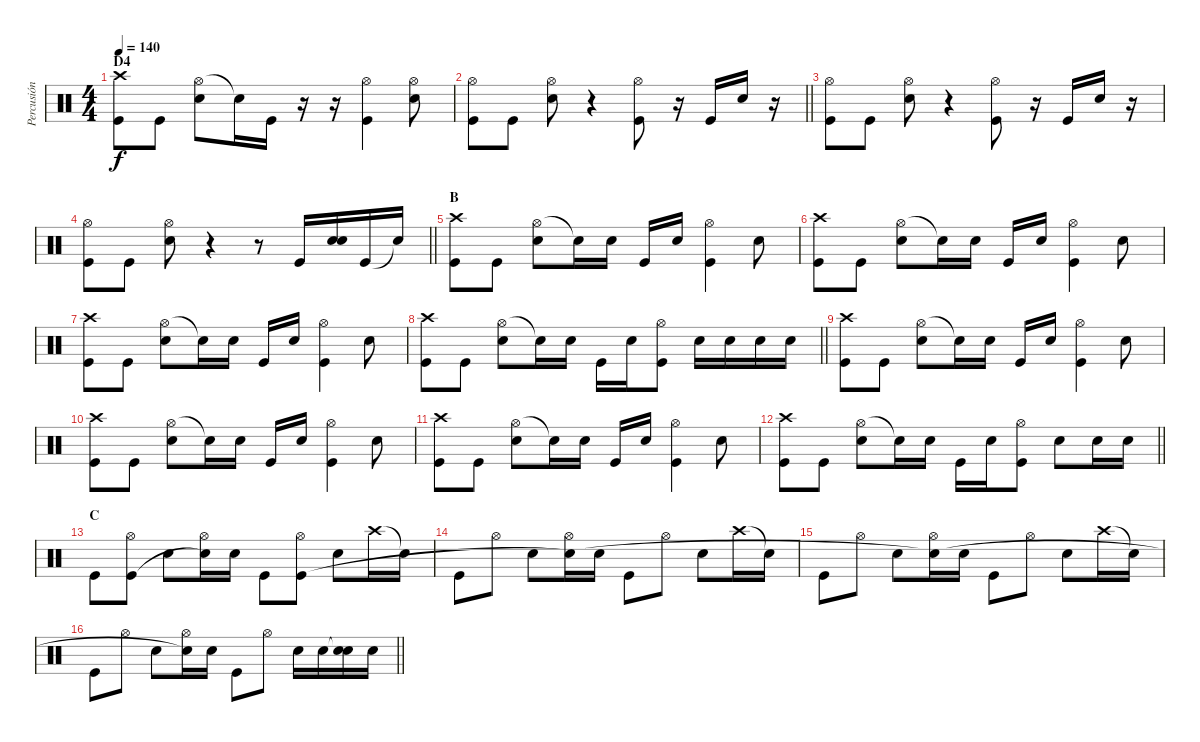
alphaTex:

\track ("Percusión" "Percusión") {instrument percussion}
\staff {score}
\articulation defaults
\ts (4 4)
\section ("" "D4")
\tempo 140
\clef neutral
\ks c
("Crash high (hit)" "Kick (hit)").8{dy f} "Kick (hit)".8 ("Hi-Hat (open)" "Electric Snare (hit)").8 "Electric Snare (hit)"{t}.16 "Kick (hit)".16 r.16 r.16 ("Hi-Hat (open)" "Kick (hit)").4 ("Hi-Hat (open)" "Electric Snare (hit)").8 |
\barLineRight lightlight
("Hi-Hat (open)" "Kick (hit)").8 "Kick (hit)".8 ("Hi-Hat (open)" "Electric Snare (hit)").8 r.4 ("Hi-Hat (open)" "Kick (hit)").8 r.16 "Kick (hit)".16 "Electric Snare (hit)".16 r.16 |
("Hi-Hat (open)" "Kick (hit)").8 "Kick (hit)".8 ("Hi-Hat (open)" "Electric Snare (hit)").8 r.4 ("Hi-Hat (open)" "Kick (hit)").8 r.16 "Kick (hit)".16 "Electric Snare (hit)".16 r.16 |
\barLineRight lightlight
("Hi-Hat (open)" "Kick (hit)").8 "Kick (hit)".8 ("Hi-Hat (open)" "Electric Snare (hit)").8 r.4 r.8 "Kick (hit)".16 ("Electric Snare (hit)" "Electric Snare (hit)").16 "Kick (hit)".16 "Snare (hit)"{t}.16 |
\section ("" "B")
("Crash high (hit)" "Kick (hit)").8 "Kick (hit)".8 ("Hi-Hat (open)" "Electric Snare (hit)").8 "Electric Snare (hit)"{t}.16 "Electric Snare (hit)".16 "Kick (hit)".16 "Electric Snare (hit)".16 ("Hi-Hat (open)" "Kick (hit)").4 "Electric Snare (hit)".8 |
("Crash high (hit)" "Kick (hit)").8 "Kick (hit)".8 ("Hi-Hat (open)" "Electric Snare (hit)").8 "Electric Snare (hit)"{t}.16 "Electric Snare (hit)".16 "Kick (hit)".16 "Electric Snare (hit)".16 ("Hi-Hat (open)" "Kick (hit)").4 "Electric Snare (hit)".8 |
("Crash high (hit)" "Kick (hit)").8 "Kick (hit)".8 ("Hi-Hat (open)" "Electric Snare (hit)").8 "Electric Snare (hit)"{t}.16 "Electric Snare (hit)".16 "Kick (hit)".16 "Electric Snare (hit)".16 ("Hi-Hat (open)" "Kick (hit)").4 "Electric Snare (hit)".8 |
\barLineRight lightlight
("Crash high (hit)" "Kick (hit)").8 "Kick (hit)".8 ("Hi-Hat (open)" "Electric Snare (hit)").8 "Electric Snare (hit)"{t}.16 "Electric Snare (hit)".16 "Kick (hit)".16 "Electric Snare (hit)".16 ("Hi-Hat (open)" "Kick (hit)").8 "Electric Snare (hit)".16 "Electric Snare (hit)".16 "Electric Snare (hit)".16 "Electric Snare (hit)".16 |
("Crash high (hit)" "Kick (hit)").8 "Kick (hit)".8 ("Hi-Hat (open)" "Electric Snare (hit)").8 "Electric Snare (hit)"{t}.16 "Electric Snare (hit)".16 "Kick (hit)".16 "Electric Snare (hit)".16 ("Hi-Hat (open)" "Kick (hit)").4 "Electric Snare (hit)".8 |
("Crash high (hit)" "Kick (hit)").8 "Kick (hit)".8 ("Hi-Hat (open)" "Electric Snare (hit)").8 "Electric Snare (hit)"{t}.16 "Electric Snare (hit)".16 "Kick (hit)".16 "Electric Snare (hit)".16 ("Hi-Hat (open)" "Kick (hit)").4 "Electric Snare (hit)".8 |
("Crash high (hit)" "Kick (hit)").8 "Kick (hit)".8 ("Hi-Hat (open)" "Electric Snare (hit)").8 "Electric Snare (hit)"{t}.16 "Electric Snare (hit)".16 "Kick (hit)".16 "Electric Snare (hit)".16 ("Hi-Hat (open)" "Kick (hit)").4 "Electric Snare (hit)".8 |
\barLineRight lightlight
("Crash high (hit)" "Kick (hit)").8 "Kick (hit)".8 ("Hi-Hat (open)" "Electric Snare (hit)").8 "Electric Snare (hit)"{t}.16 "Electric Snare (hit)".16 "Kick (hit)".16 "Electric Snare (hit)".16 ("Hi-Hat (open)" "Kick (hit)").8 "Electric Snare (hit)".8 "Electric Snare (hit)".16 "Electric Snare (hit)".16 |
\section ("" "C")
"Kick (hit)".8 ("Hi-Hat (open)" "Kick (hit)").8 "Electric Snare (hit)".8 ("Hi-Hat (open)" "Electric Snare (hit)"{t}).16 "Electric Snare (hit)".16 "Kick (hit)".8 ("Hi-Hat (open)" "Kick (hit)").8 "Electric Snare (hit)".8 "Crash high (hit)".16 "Snare (hit)"{t}.16 |
"Kick (hit)".8 "Hi-Hat (open)".8 "Electric Snare (hit)".8 ("Hi-Hat (open)" "Electric Snare (hit)"{t}).16 "Electric Snare (hit)".16 "Kick (hit)".8 "Hi-Hat (open)".8 "Electric Snare (hit)".8 "Crash high (hit)".16 "Snare (hit)"{t}.16 |
"Kick (hit)".8 "Hi-Hat (open)".8 "Electric Snare (hit)".8 ("Hi-Hat (open)" "Electric Snare (hit)"{t}).16 "Electric Snare (hit)".16 "Kick (hit)".8 "Hi-Hat (open)".8 "Electric Snare (hit)".8 "Crash high (hit)".16 "Snare (hit)"{t}.16 |
\barLineRight lightlight "Kick (hit)".8 "Hi-Hat (open)".8 "Electric Snare (hit)".8
("Hi-Hat (open)" "Electric Snare (hit)"{t}).16 "Electric Snare (hit)".16 "Kick (hit)".8 "Hi-Hat (open)".8 "Electric Snare (hit)".16 "Electric Snare (hit)".16 ("Snare (hit)"{t} "Electric Snare (hit)").16 "Electric Snare (hit)".16
